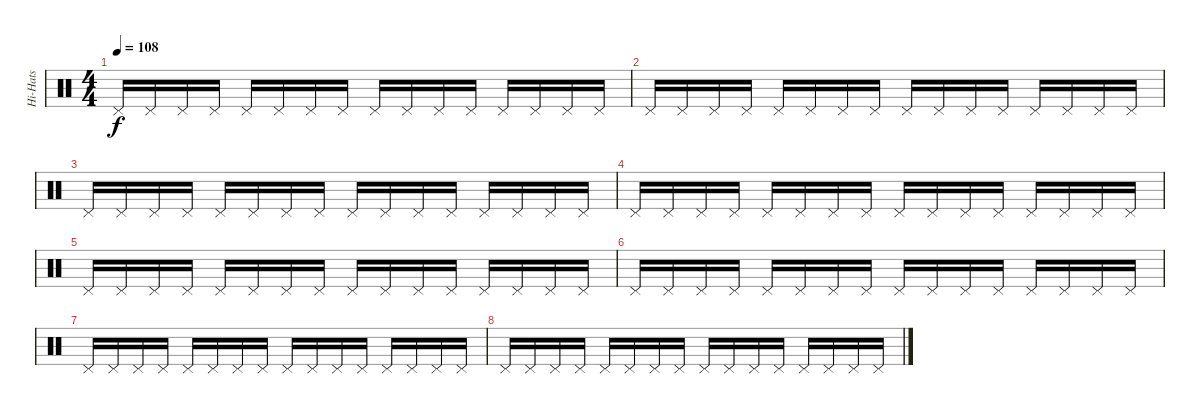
\track ("Hi-Hats" "Hi-Hats") {instrument percussion}
\staff {score}
\articulation defaults
\ts (4 4)
\tempo 108
\clef neutral
\ks c "Pedal Hi-Hat (hit)".16{dy f} "Pedal Hi-Hat (hit)".16 "Pedal Hi-Hat (hit)".16 "Pedal Hi-Hat (hit)".16 "Pedal Hi-Hat (hit)".16 "Pedal Hi-Hat (hit)".16 "Pedal Hi-Hat (hit)".16 "Pedal Hi-Hat (hit)".16 "Pedal Hi-Hat (hit)".16 "Pedal Hi-Hat (hit)".16 "Pedal Hi-Hat (hit)".16 "Pedal Hi-Hat (hit)".16 "Pedal Hi-Hat (hit)".16 "Pedal Hi-Hat (hit)".16 "Pedal Hi-Hat (hit)".16 "Pedal Hi-Hat (hit)".16
|
"Pedal Hi-Hat (hit)".16 "Pedal Hi-Hat (hit)".16 "Pedal Hi-Hat (hit)".16 "Pedal Hi-Hat (hit)".16 "Pedal Hi-Hat (hit)".16 "Pedal Hi-Hat (hit)".16 "Pedal Hi-Hat (hit)".16 "Pedal Hi-Hat (hit)".16 "Pedal Hi-Hat (hit)".16 "Pedal Hi-Hat (hit)".16 "Pedal Hi-Hat (hit)".16 "Pedal Hi-Hat (hit)".16 "Pedal Hi-Hat (hit)".16 "Pedal Hi-Hat (hit)".16 "Pedal Hi-Hat (hit)".16 "Pedal Hi-Hat (hit)".16 |
"Pedal Hi-Hat (hit)".16 "Pedal Hi-Hat (hit)".16 "Pedal Hi-Hat (hit)".16 "Pedal Hi-Hat (hit)".16 "Pedal Hi-Hat (hit)".16 "Pedal Hi-Hat (hit)".16 "Pedal Hi-Hat (hit)".16 "Pedal Hi-Hat (hit)".16 "Pedal Hi-Hat (hit)".16 "Pedal Hi-Hat (hit)".16 "Pedal Hi-Hat (hit)".16 "Pedal Hi-Hat (hit)".16 "Pedal Hi-Hat (hit)".16 "Pedal Hi-Hat (hit)".16 "Pedal Hi-Hat (hit)".16 "Pedal Hi-Hat (hit)".16 |
"Pedal Hi-Hat (hit)".16 "Pedal Hi-Hat (hit)".16 "Pedal Hi-Hat (hit)".16 "Pedal Hi-Hat (hit)".16 "Pedal Hi-Hat (hit)".16 "Pedal Hi-Hat (hit)".16 "Pedal Hi-Hat (hit)".16 "Pedal Hi-Hat (hit)".16 "Pedal Hi-Hat (hit)".16 "Pedal Hi-Hat (hit)".16 "Pedal Hi-Hat (hit)".16 "Pedal Hi-Hat (hit)".16 "Pedal Hi-Hat (hit)".16 "Pedal Hi-Hat (hit)".16 "Pedal Hi-Hat (hit)".16 "Pedal Hi-Hat (hit)".16 |
"Pedal Hi-Hat (hit)".16 "Pedal Hi-Hat (hit)".16 "Pedal Hi-Hat (hit)".16 "Pedal Hi-Hat (hit)".16 "Pedal Hi-Hat (hit)".16 "Pedal Hi-Hat (hit)".16 "Pedal Hi-Hat (hit)".16 "Pedal Hi-Hat (hit)".16 "Pedal Hi-Hat (hit)".16 "Pedal Hi-Hat (hit)".16 "Pedal Hi-Hat (hit)".16 "Pedal Hi-Hat (hit)".16 "Pedal Hi-Hat (hit)".16 "Pedal Hi-Hat (hit)".16 "Pedal Hi-Hat (hit)".16 "Pedal Hi-Hat (hit)".16 |
"Pedal Hi-Hat (hit)".16 "Pedal Hi-Hat (hit)".16 "Pedal Hi-Hat (hit)".16 "Pedal Hi-Hat (hit)".16 "Pedal Hi-Hat (hit)".16 "Pedal Hi-Hat (hit)".16 "Pedal Hi-Hat (hit)".16 "Pedal Hi-Hat (hit)".16 "Pedal Hi-Hat (hit)".16 "Pedal Hi-Hat (hit)".16 "Pedal Hi-Hat (hit)".16 "Pedal Hi-Hat (hit)".16 "Pedal Hi-Hat (hit)".16 "Pedal Hi-Hat (hit)".16 "Pedal Hi-Hat (hit)".16 "Pedal Hi-Hat (hit)".16 |
"Pedal Hi-Hat (hit)".16 "Pedal Hi-Hat (hit)".16 "Pedal Hi-Hat (hit)".16 "Pedal Hi-Hat (hit)".16 "Pedal Hi-Hat (hit)".16 "Pedal Hi-Hat (hit)".16 "Pedal Hi-Hat (hit)".16 "Pedal Hi-Hat (hit)".16 "Pedal Hi-Hat (hit)".16 "Pedal Hi-Hat (hit)".16 "Pedal Hi-Hat (hit)".16 "Pedal Hi-Hat (hit)".16 "Pedal Hi-Hat (hit)".16 "Pedal Hi-Hat (hit)".16 "Pedal Hi-Hat (hit)".16 "Pedal Hi-Hat (hit)".16 |
"Pedal Hi-Hat (hit)".16 "Pedal Hi-Hat (hit)".16 "Pedal Hi-Hat (hit)".16 "Pedal Hi-Hat (hit)".16 "Pedal Hi-Hat (hit)".16 "Pedal Hi-Hat (hit)".16 "Pedal Hi-Hat (hit)".16 "Pedal Hi-Hat (hit)".16 "Pedal Hi-Hat (hit)".16 "Pedal Hi-Hat (hit)".16 "Pedal Hi-Hat (hit)".16 "Pedal Hi-Hat (hit)".16 "Pedal Hi-Hat (hit)".16 "Pedal Hi-Hat (hit)".16 "Pedal Hi-Hat (hit)".16 "Pedal Hi-Hat (hit)".16
